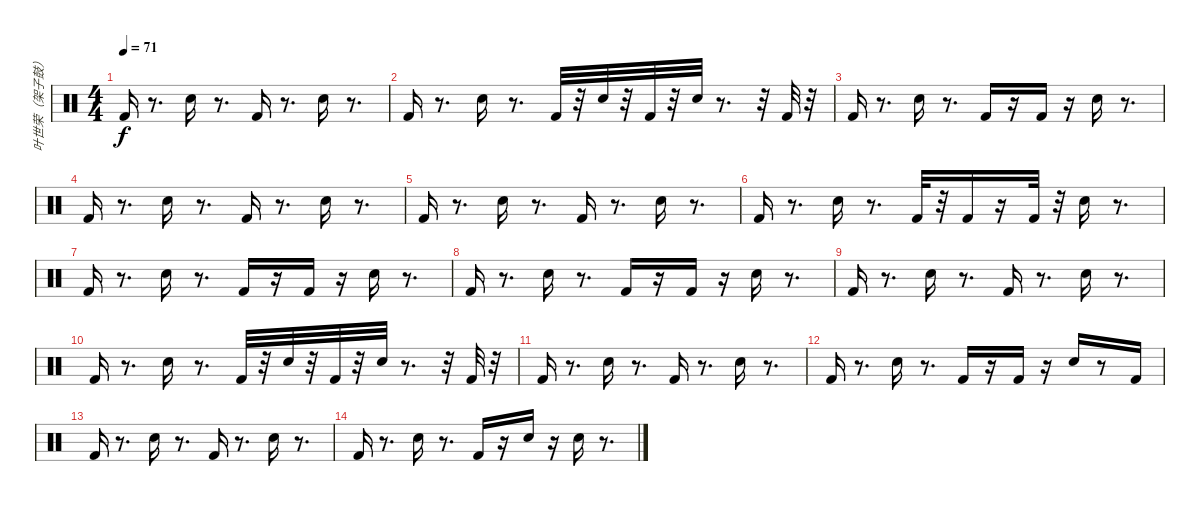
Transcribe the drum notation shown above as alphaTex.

\track ("叶世荣（架子鼓）" "叶世荣（架子鼓）") {instrument percussion}
\staff {score}
\articulation defaults
\ts (4 4)
\tempo 71
\clef neutral
\ks c "Kick (hit) 2".16{dy f}
r.8{d} "Snare (hit) 2".16 r.8{d} "Kick (hit) 2".16 r.8{d} "Snare (hit) 2".16 r.8{d} |
"Kick (hit) 2".16 r.8{d} "Snare (hit) 2".16 r.8{d} "Kick (hit) 2".32 r.32 "Snare (hit) 2".32 r.32 "Kick (hit) 2".32 r.32 "Snare (hit) 2".32 r.8{d} r.32 "Kick (hit) 2".32 r.32 |
"Kick (hit) 2".16 r.8{d} "Snare (hit) 2".16 r.8{d} "Kick (hit) 2".16 r.16 "Kick (hit) 2".16 r.16 "Snare (hit) 2".16 r.8{d} |
"Kick (hit) 2".16 r.8{d} "Snare (hit) 2".16 r.8{d} "Kick (hit) 2".16 r.8{d} "Snare (hit) 2".16 r.8{d} |
"Kick (hit) 2".16 r.8{d} "Snare (hit) 2".16 r.8{d} "Kick (hit) 2".16 r.8{d} "Snare (hit) 2".16 r.8{d} |
"Kick (hit) 2".16 r.8{d} "Snare (hit) 2".16 r.8{d} "Kick (hit) 2".32 r.32 "Kick (hit) 2".16 r.16 "Kick (hit) 2".32 r.32 "Snare (hit) 2".16 r.8{d} |
"Kick (hit) 2".16 r.8{d} "Snare (hit) 2".16 r.8{d} "Kick (hit) 2".16 r.16 "Kick (hit) 2".16 r.16 "Snare (hit) 2".16 r.8{d} |
"Kick (hit) 2".16 r.8{d} "Snare (hit) 2".16 r.8{d} "Kick (hit) 2".16 r.16 "Kick (hit) 2".16 r.16 "Snare (hit) 2".16 r.8{d} |
"Kick (hit) 2".16 r.8{d} "Snare (hit) 2".16 r.8{d} "Kick (hit) 2".16 r.8{d} "Snare (hit) 2".16 r.8{d} |
"Kick (hit) 2".16 r.8{d} "Snare (hit) 2".16 r.8{d} "Kick (hit) 2".32 r.32 "Snare (hit) 2".32 r.32 "Kick (hit) 2".32 r.32 "Snare (hit) 2".32 r.8{d} r.32 "Kick (hit) 2".32 r.32 |
"Kick (hit) 2".16 r.8{d} "Snare (hit) 2".16 r.8{d} "Kick (hit) 2".16 r.8{d} "Snare (hit) 2".16 r.8{d} |
"Kick (hit) 2".16 r.8{d} "Snare (hit) 2".16 r.8{d} "Kick (hit) 2".16 r.16 "Kick (hit) 2".16 r.16 "Snare (hit) 2".16 r.8 "Kick (hit) 2".16 |
"Kick (hit) 2".16 r.8{d} "Snare (hit) 2".16 r.8{d} "Kick (hit) 2".16 r.8{d} "Snare (hit) 2".16 r.8{d} |
"Kick (hit) 2".16 r.8{d} "Snare (hit) 2".16 r.8{d} "Kick (hit) 2".16 r.16 "Snare (hit) 2".16 r.16 "Snare (hit) 2".16 r.8{d}
